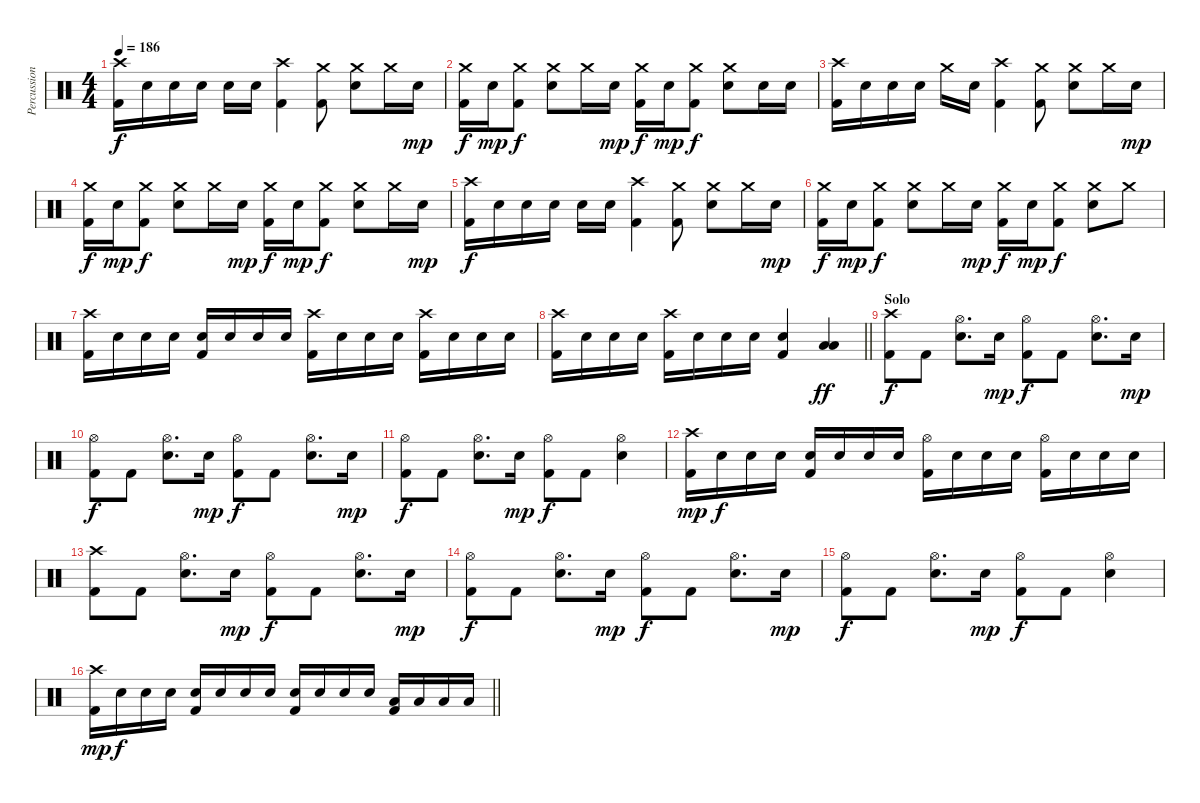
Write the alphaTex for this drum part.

\track ("Percussion" "Percussion") {instrument percussion}
\staff {score}
\articulation defaults
\ts (4 4)
\tempo 186
\clef neutral
\ks c
("Crash high (hit)" "Kick (hit) 2").16{dy f} "Electric Snare (hit)".16 "Electric Snare (hit)".16 "Electric Snare (hit)".16 "Electric Snare (hit)".16 "Electric Snare (hit)".16 ("Crash high (hit)" "Kick (hit) 2").4 ("Crash medium (hit)" "Kick (hit) 2").8 ("Crash medium (hit)" "Electric Snare (hit)").8 "Crash medium (hit)".16 "Electric Snare (hit)".16{dy mp} |
("Crash medium (hit)" "Kick (hit) 2").16{dy f} "Electric Snare (hit)".16{dy mp} ("Crash medium (hit)" "Kick (hit) 2").8{dy f} ("Crash medium (hit)" "Electric Snare (hit)").8 "Crash medium (hit)".16 "Electric Snare (hit)".16{dy mp} ("Crash medium (hit)" "Kick (hit) 2").16{dy f} "Electric Snare (hit)".16{dy mp} ("Crash medium (hit)" "Kick (hit) 2").8{dy f} ("Crash medium (hit)" "Electric Snare (hit)").8 "Electric Snare (hit)".16 "Electric Snare (hit)".16 |
("Crash high (hit)" "Kick (hit) 2").16 "Electric Snare (hit)".16 "Electric Snare (hit)".16 "Electric Snare (hit)".16 "Crash medium (hit)".16 "Electric Snare (hit)".16 ("Crash high (hit)" "Kick (hit) 2").4 ("Crash medium (hit)" "Kick (hit) 2").8 ("Crash medium (hit)" "Electric Snare (hit)").8 "Crash medium (hit)".16 "Electric Snare (hit)".16{dy mp} |
("Crash medium (hit)" "Kick (hit) 2").16{dy f} "Electric Snare (hit)".16{dy mp} ("Crash medium (hit)" "Kick (hit) 2").8{dy f} ("Crash medium (hit)" "Electric Snare (hit)").8 "Crash medium (hit)".16 "Electric Snare (hit)".16{dy mp} ("Crash medium (hit)" "Kick (hit) 2").16{dy f} "Electric Snare (hit)".16{dy mp} ("Crash medium (hit)" "Kick (hit) 2").8{dy f} ("Crash medium (hit)" "Electric Snare (hit)").8 "Crash medium (hit)".16 "Electric Snare (hit)".16{dy mp} |
("Crash high (hit)" "Kick (hit) 2").16{dy f} "Electric Snare (hit)".16 "Electric Snare (hit)".16 "Electric Snare (hit)".16 "Electric Snare (hit)".16 "Electric Snare (hit)".16 ("Crash high (hit)" "Kick (hit) 2").4 ("Crash medium (hit)" "Kick (hit) 2").8 ("Crash medium (hit)" "Electric Snare (hit)").8 "Crash medium (hit)".16 "Electric Snare (hit)".16{dy mp} |
("Crash medium (hit)" "Kick (hit) 2").16{dy f} "Electric Snare (hit)".16{dy mp} ("Crash medium (hit)" "Kick (hit) 2").8{dy f} ("Crash medium (hit)" "Electric Snare (hit)").8 "Crash medium (hit)".16 "Electric Snare (hit)".16{dy mp} ("Crash medium (hit)" "Kick (hit) 2").16{dy f} "Electric Snare (hit)".16{dy mp} ("Crash medium (hit)" "Kick (hit) 2").8{dy f} ("Crash medium (hit)" "Electric Snare (hit)").8 "Crash medium (hit)".8 |
("Crash high (hit)" "Kick (hit) 2").16 "Electric Snare (hit)".16 "Electric Snare (hit)".16 "Electric Snare (hit)".16 ("Electric Snare (hit)" "Kick (hit) 2").16 "Electric Snare (hit)".16 "Electric Snare (hit)".16 "Electric Snare (hit)".16 ("Crash high (hit)" "Kick (hit) 2").16 "Electric Snare (hit)".16 "Electric Snare (hit)".16 "Electric Snare (hit)".16 ("Crash high (hit)" "Kick (hit) 2").16 "Electric Snare (hit)".16 "Electric Snare (hit)".16 "Electric Snare (hit)".16 |
\barLineRight lightlight
("Crash high (hit)" "Kick (hit) 2").16 "Electric Snare (hit)".16 "Electric Snare (hit)".16 "Electric Snare (hit)".16 ("Crash high (hit)" "Kick (hit) 2").16 "Electric Snare (hit)".16 "Electric Snare (hit)".16 "Electric Snare (hit)".16 ("Electric Snare (hit)" "Kick (hit) 2").4 ("Low Tom (hit)" "Low Floor Tom (hit)").4{dy ff} |
\section ("" "Solo")
("Crash high (hit)" "Kick (hit) 2").8{dy f} "Kick (hit) 2".8 ("Hi-Hat (open)" "Electric Snare (hit)").8{d} "Electric Snare (hit)".16{dy mp} ("Hi-Hat (open)" "Kick (hit) 2").8{dy f} "Kick (hit) 2".8 ("Hi-Hat (open)" "Electric Snare (hit)").8{d} "Electric Snare (hit)".16{dy mp} |
("Hi-Hat (open)" "Kick (hit) 2").8{dy f} "Kick (hit) 2".8 ("Hi-Hat (open)" "Electric Snare (hit)").8{d} "Electric Snare (hit)".16{dy mp} ("Hi-Hat (open)" "Kick (hit) 2").8{dy f} "Kick (hit) 2".8 ("Hi-Hat (open)" "Electric Snare (hit)").8{d} "Electric Snare (hit)".16{dy mp} |
("Hi-Hat (open)" "Kick (hit) 2").8{dy f} "Kick (hit) 2".8 ("Hi-Hat (open)" "Electric Snare (hit)").8{d} "Electric Snare (hit)".16{dy mp} ("Hi-Hat (open)" "Kick (hit) 2").8{dy f} "Kick (hit) 2".8 ("Hi-Hat (open)" "Electric Snare (hit)").4 |
("Crash high (hit)" "Kick (hit) 2").16{dy mp} "Electric Snare (hit)".16{dy f} "Electric Snare (hit)".16 "Electric Snare (hit)".16 ("Electric Snare (hit)" "Kick (hit) 2").16 "Electric Snare (hit)".16 "Electric Snare (hit)".16 "Electric Snare (hit)".16 ("Hi-Hat (open)" "Kick (hit) 2").16 "Electric Snare (hit)".16 "Electric Snare (hit)".16 "Electric Snare (hit)".16 ("Hi-Hat (open)" "Kick (hit) 2").16 "Electric Snare (hit)".16 "Electric Snare (hit)".16 "Electric Snare (hit)".16 |
("Crash high (hit)" "Kick (hit) 2").8 "Kick (hit) 2".8 ("Hi-Hat (open)" "Electric Snare (hit)").8{d} "Electric Snare (hit)".16{dy mp} ("Hi-Hat (open)" "Kick (hit) 2").8{dy f} "Kick (hit) 2".8 ("Hi-Hat (open)" "Electric Snare (hit)").8{d} "Electric Snare (hit)".16{dy mp} |
("Hi-Hat (open)" "Kick (hit) 2").8{dy f} "Kick (hit) 2".8 ("Hi-Hat (open)" "Electric Snare (hit)").8{d} "Electric Snare (hit)".16{dy mp} ("Hi-Hat (open)" "Kick (hit) 2").8{dy f} "Kick (hit) 2".8 ("Hi-Hat (open)" "Electric Snare (hit)").8{d} "Electric Snare (hit)".16{dy mp} |
("Hi-Hat (open)" "Kick (hit) 2").8{dy f} "Kick (hit) 2".8 ("Hi-Hat (open)" "Electric Snare (hit)").8{d} "Electric Snare (hit)".16{dy mp} ("Hi-Hat (open)" "Kick (hit) 2").8{dy f} "Kick (hit) 2".8 ("Hi-Hat (open)" "Electric Snare (hit)").4 |
\barLineRight lightlight
("Crash high (hit)" "Kick (hit) 2").16{dy mp} "Electric Snare (hit)".16{dy f} "Electric Snare (hit)".16 "Electric Snare (hit)".16 ("Electric Snare (hit)" "Kick (hit) 2").16 "Electric Snare (hit)".16 "Electric Snare (hit)".16 "Electric Snare (hit)".16 ("Electric Snare (hit)" "Kick (hit) 2").16 "Electric Snare (hit)".16 "Electric Snare (hit)".16 "Electric Snare (hit)".16 ("Low Tom (hit)" "Kick (hit) 2").16 "Low Tom (hit)".16 "Low Tom (hit)".16 "Low Tom (hit)".16
